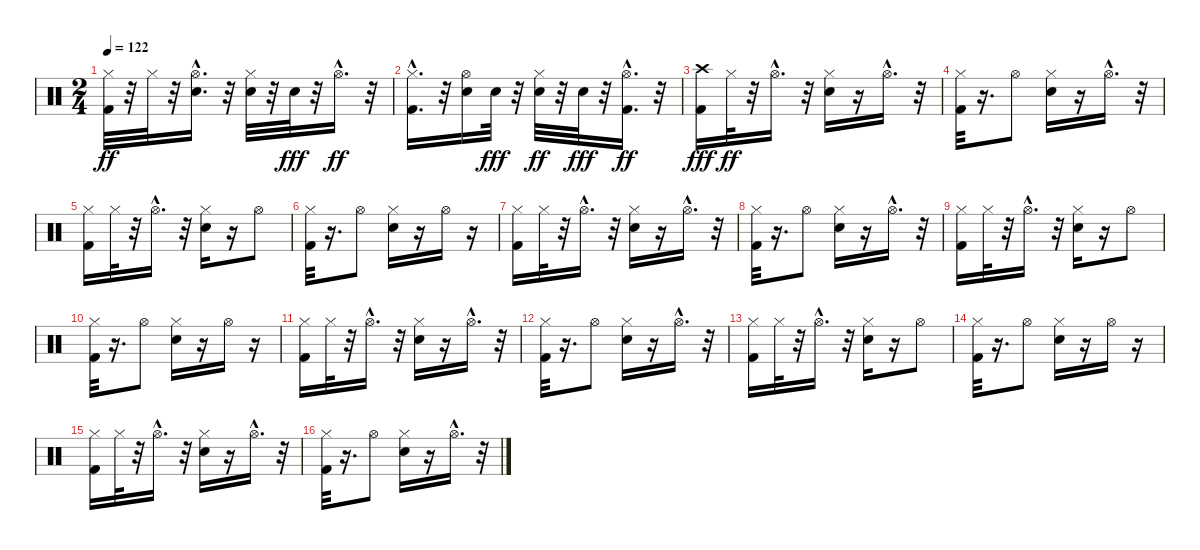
\track "" {instrument percussion}
\staff {score}
\articulation defaults
\ts (2 4)
\tempo 122
\clef neutral
\ks c
("Kick (hit) 2" "Hi-Hat (closed)").32{dy ff} r.32 "Hi-Hat (closed)".32 r.32 ("Snare (hit) 2" "Hi-Hat (open)"{hac}).16{d} r.32 ("Snare (hit) 2" "Hi-Hat (closed)").32 r.32 "Snare (hit) 2".32{dy fff} r.32 "Hi-Hat (open)"{hac}.16{d dy ff} r.32 |
("Kick (hit) 2"{hac} "Hi-Hat (closed)").16{d} r.32 ("Snare (hit) 2" "Hi-Hat (open)").16 "Snare (hit) 2".32{dy fff} r.32 ("Snare (hit) 2" "Hi-Hat (closed)").32{dy ff} r.32 "Snare (hit) 2".32{dy fff} r.32 ("Kick (hit) 2" "Hi-Hat (open)"{hac}).16{d dy ff} r.32 |
("Kick (hit) 2" "Crash high (hit)").16{dy fff} "Hi-Hat (closed)".32{dy ff} r.32 "Hi-Hat (open)"{hac}.16{d} r.32 ("Snare (hit) 2" "Hi-Hat (closed)").16 r.16 "Hi-Hat (open)"{hac}.16{d} r.32 |
("Kick (hit) 2" "Hi-Hat (closed)").32 r.16{d} "Hi-Hat (open)".8 ("Snare (hit) 2" "Hi-Hat (closed)").16 r.16 "Hi-Hat (open)"{hac}.16{d} r.32 |
("Kick (hit) 2" "Hi-Hat (closed)").16 "Hi-Hat (closed)".32 r.32 "Hi-Hat (open)"{hac}.16{d} r.32 ("Snare (hit) 2" "Hi-Hat (closed)").16 r.16 "Hi-Hat (open)".8 |
("Kick (hit) 2" "Hi-Hat (closed)").32 r.16{d} "Hi-Hat (open)".8 ("Snare (hit) 2" "Hi-Hat (closed)").16 r.16 "Hi-Hat (open)".16 r.16 |
("Kick (hit) 2" "Hi-Hat (closed)").16 "Hi-Hat (closed)".32 r.32 "Hi-Hat (open)"{hac}.16{d} r.32 ("Snare (hit) 2" "Hi-Hat (closed)").16 r.16 "Hi-Hat (open)"{hac}.16{d} r.32 |
("Kick (hit) 2" "Hi-Hat (closed)").32 r.16{d} "Hi-Hat (open)".8 ("Snare (hit) 2" "Hi-Hat (closed)").16 r.16 "Hi-Hat (open)"{hac}.16{d} r.32 |
("Kick (hit) 2" "Hi-Hat (closed)").16 "Hi-Hat (closed)".32 r.32 "Hi-Hat (open)"{hac}.16{d} r.32 ("Snare (hit) 2" "Hi-Hat (closed)").16 r.16 "Hi-Hat (open)".8 |
("Kick (hit) 2" "Hi-Hat (closed)").32 r.16{d} "Hi-Hat (open)".8 ("Snare (hit) 2" "Hi-Hat (closed)").16 r.16 "Hi-Hat (open)".16 r.16 |
("Kick (hit) 2" "Hi-Hat (closed)").16 "Hi-Hat (closed)".32 r.32 "Hi-Hat (open)"{hac}.16{d} r.32 ("Snare (hit) 2" "Hi-Hat (closed)").16 r.16 "Hi-Hat (open)"{hac}.16{d} r.32 |
("Kick (hit) 2" "Hi-Hat (closed)").32 r.16{d} "Hi-Hat (open)".8 ("Snare (hit) 2" "Hi-Hat (closed)").16 r.16 "Hi-Hat (open)"{hac}.16{d} r.32 |
("Kick (hit) 2" "Hi-Hat (closed)").16 "Hi-Hat (closed)".32 r.32 "Hi-Hat (open)"{hac}.16{d} r.32 ("Snare (hit) 2" "Hi-Hat (closed)").16 r.16 "Hi-Hat (open)".8 |
("Kick (hit) 2" "Hi-Hat (closed)").32 r.16{d} "Hi-Hat (open)".8 ("Snare (hit) 2" "Hi-Hat (closed)").16 r.16 "Hi-Hat (open)".16 r.16 |
("Kick (hit) 2" "Hi-Hat (closed)").16 "Hi-Hat (closed)".32 r.32 "Hi-Hat (open)"{hac}.16{d} r.32 ("Snare (hit) 2" "Hi-Hat (closed)").16 r.16 "Hi-Hat (open)"{hac}.16{d} r.32 |
("Kick (hit) 2" "Hi-Hat (closed)").32 r.16{d} "Hi-Hat (open)".8 ("Snare (hit) 2" "Hi-Hat (closed)").16 r.16 "Hi-Hat (open)"{hac}.16{d} r.32
